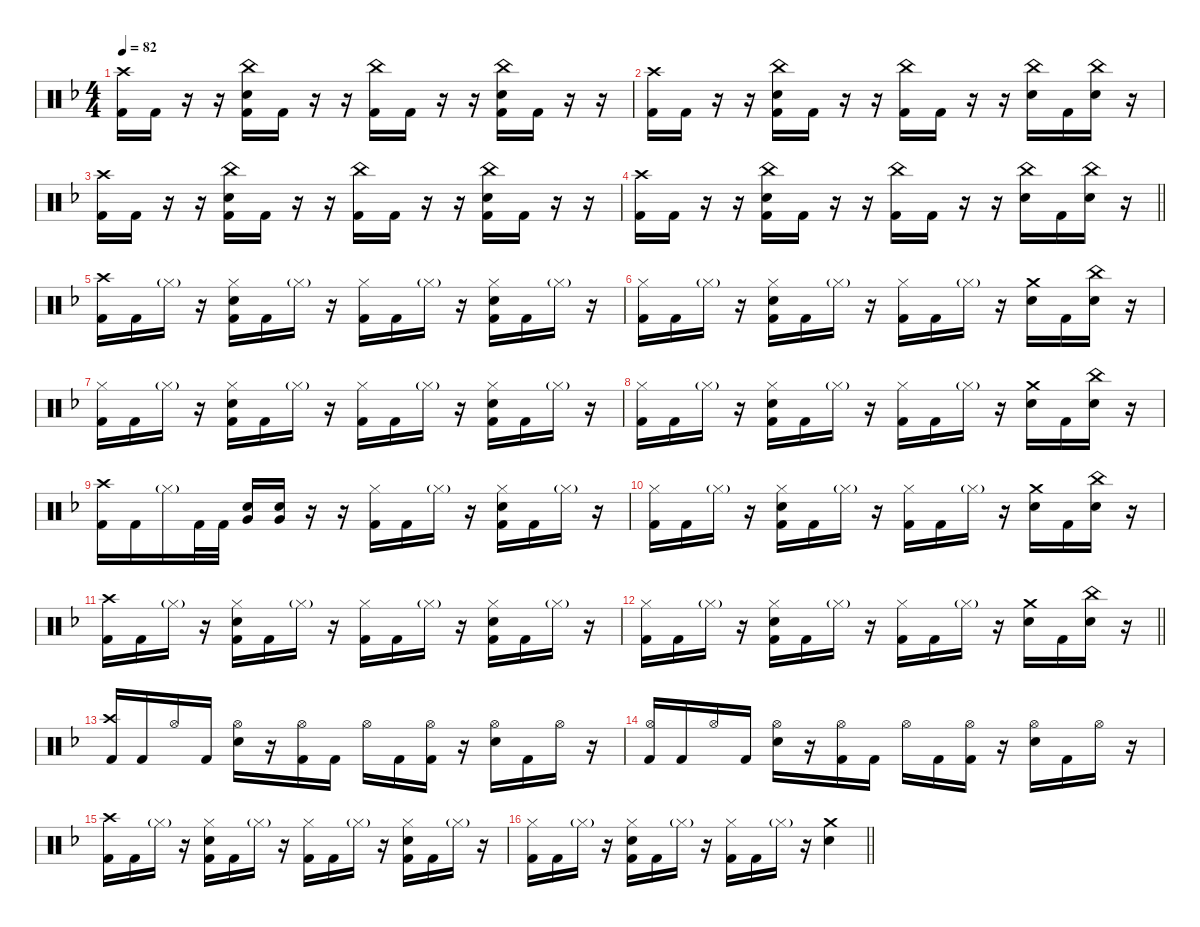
\defaultSystemsLayout 4
\hideDynamics
\bracketExtendMode nobrackets
\singleTrackTrackNamePolicy hidden
\multiTrackTrackNamePolicy hidden
\firstSystemTrackNameMode fullname
\firstSystemTrackNameOrientation horizontal
\otherSystemsTrackNameOrientation horizontal
\track ("Drums" "drm.") {defaultSystemsLayout 4 instrument percussion}
\staff {score}
\articulation defaults
\ts (4 4)
\tempo 82
\clef neutral
\ks dminor
("Crash high (hit)"{acc forcenatural} "Kick (hit) 2"{acc forcenatural}).16{dy f beam Down} "Kick (hit) 2"{acc forcenatural}.16{beam Down} r.16{beam Down} r.16{beam Down} ("China (hit)"{acc forcenatural} "Snare (hit) 2"{acc forcenatural} "Kick (hit) 2"{acc forcenatural}).16{dy mf beam Down} "Kick (hit) 2"{acc forcenatural}.16{dy f beam Down} r.16{beam Down} r.16{beam Down} ("China (hit)"{acc forcenatural} "Kick (hit) 2"{acc forcenatural}).16{dy mf beam Down} "Kick (hit) 2"{acc forcenatural}.16{dy f beam Down} r.16{beam Down} r.16{beam Down} ("China (hit)"{acc forcenatural} "Snare (hit) 2"{acc forcenatural} "Kick (hit) 2"{acc forcenatural}).16{dy mf beam Down} "Kick (hit) 2"{acc forcenatural}.16{dy f beam Down} r.16{beam Down} r.16{beam Down} |
("Crash high (hit)"{acc forcenatural} "Kick (hit) 2"{acc forcenatural}).16{beam Down} "Kick (hit) 2"{acc forcenatural}.16{beam Down} r.16{beam Down} r.16{beam Down} ("China (hit)"{acc forcenatural} "Snare (hit) 2"{acc forcenatural} "Kick (hit) 2"{acc forcenatural}).16{dy mf beam Down} "Kick (hit) 2"{acc forcenatural}.16{dy f beam Down} r.16{beam Down} r.16{beam Down} ("China (hit)"{acc forcenatural} "Kick (hit) 2"{acc forcenatural}).16{dy mf beam Down} "Kick (hit) 2"{acc forcenatural}.16{dy f beam Down} r.16{beam Down} r.16{beam Down} ("China (hit)"{acc forcenatural} "Snare (hit) 2"{acc forcenatural}).16{dy mf beam Down} "Kick (hit) 2"{acc forcenatural}.16{dy f beam Down} ("China (hit)"{acc forcenatural} "Snare (hit) 2"{acc forcenatural}).16{dy mf beam Down} r.16{beam Down} |
("Crash high (hit)"{acc forcenatural} "Kick (hit) 2"{acc forcenatural}).16{dy f beam Down} "Kick (hit) 2"{acc forcenatural}.16{beam Down} r.16{beam Down} r.16{beam Down} ("China (hit)"{acc forcenatural} "Snare (hit) 2"{acc forcenatural} "Kick (hit) 2"{acc forcenatural}).16{dy mf beam Down} "Kick (hit) 2"{acc forcenatural}.16{dy f beam Down} r.16{beam Down} r.16{beam Down} ("China (hit)"{acc forcenatural} "Kick (hit) 2"{acc forcenatural}).16{dy mf beam Down} "Kick (hit) 2"{acc forcenatural}.16{dy f beam Down} r.16{beam Down} r.16{beam Down} ("China (hit)"{acc forcenatural} "Snare (hit) 2"{acc forcenatural} "Kick (hit) 2"{acc forcenatural}).16{dy mf beam Down} "Kick (hit) 2"{acc forcenatural}.16{dy f beam Down} r.16{beam Down} r.16{beam Down} |
\barLineRight lightlight
("Crash high (hit)"{acc forcenatural} "Kick (hit) 2"{acc forcenatural}).16{beam Down} "Kick (hit) 2"{acc forcenatural}.16{beam Down} r.16{beam Down} r.16{beam Down} ("China (hit)"{acc forcenatural} "Snare (hit) 2"{acc forcenatural} "Kick (hit) 2"{acc forcenatural}).16{dy mf beam Down} "Kick (hit) 2"{acc forcenatural}.16{dy f beam Down} r.16{beam Down} r.16{beam Down} ("China (hit)"{acc forcenatural} "Kick (hit) 2"{acc forcenatural}).16{dy mf beam Down} "Kick (hit) 2"{acc forcenatural}.16{dy f beam Down} r.16{beam Down} r.16{beam Down} ("China (hit)"{acc forcenatural} "Snare (hit) 2"{acc forcenatural}).16{dy mf beam Down} "Kick (hit) 2"{acc forcenatural}.16{dy f beam Down} ("China (hit)"{acc forcenatural} "Snare (hit) 2"{acc forcenatural}).16{dy mf beam Down} r.16{beam Down} |
("Crash high (hit)"{acc forcenatural} "Kick (hit) 2"{acc forcenatural}).16{dy f beam Down} "Kick (hit) 2"{acc forcenatural}.16{beam Down} "Hi-Hat (closed)"{g acc forcenatural}.16{dy mf beam Down} r.16{beam Down} ("Hi-Hat (closed)"{acc forcenatural} "Snare (hit) 2"{acc forcenatural} "Kick (hit) 2"{acc forcenatural}).16{dy f beam Down} "Kick (hit) 2"{acc forcenatural}.16{beam Down} "Hi-Hat (closed)"{g acc forcenatural}.16{dy mf beam Down} r.16{beam Down} ("Hi-Hat (closed)"{acc forcenatural} "Kick (hit) 2"{acc forcenatural}).16{dy f beam Down} "Kick (hit) 2"{acc forcenatural}.16{beam Down} "Hi-Hat (closed)"{g acc forcenatural}.16{dy mf beam Down} r.16{beam Down} ("Hi-Hat (closed)"{acc forcenatural} "Snare (hit) 2"{acc forcenatural} "Kick (hit) 2"{acc forcenatural}).16{dy f beam Down} "Kick (hit) 2"{acc forcenatural}.16{beam Down} "Hi-Hat (closed)"{g acc forcenatural}.16{dy mf beam Down} r.16{beam Down} |
("Hi-Hat (closed)"{acc forcenatural} "Kick (hit) 2"{acc forcenatural}).16{dy f beam Down} "Kick (hit) 2"{acc forcenatural}.16{beam Down} "Hi-Hat (closed)"{g acc forcenatural}.16{dy mf beam Down} r.16{beam Down} ("Hi-Hat (closed)"{acc forcenatural} "Snare (hit) 2"{acc forcenatural} "Kick (hit) 2"{acc forcenatural}).16{dy f beam Down} "Kick (hit) 2"{acc forcenatural}.16{beam Down} "Hi-Hat (closed)"{g acc forcenatural}.16{dy mf beam Down} r.16{beam Down} ("Hi-Hat (closed)"{acc forcenatural} "Kick (hit) 2"{acc forcenatural}).16{dy f beam Down} "Kick (hit) 2"{acc forcenatural}.16{beam Down} "Hi-Hat (closed)"{g acc forcenatural}.16{dy mf beam Down} r.16{beam Down} ("Crash medium (hit)"{acc forcenatural} "Snare (hit) 2"{acc forcenatural}).16{dy f beam Down} "Kick (hit) 2"{acc forcenatural}.16{beam Down} ("China (hit)"{acc forcenatural} "Snare (hit) 2"{acc forcenatural}).16{beam Down} r.16{beam Down} |
("Hi-Hat (closed)"{acc forcenatural} "Kick (hit) 2"{acc forcenatural}).16{beam Down} "Kick (hit) 2"{acc forcenatural}.16{beam Down} "Hi-Hat (closed)"{g acc forcenatural}.16{dy mf beam Down} r.16{beam Down} ("Hi-Hat (closed)"{acc forcenatural} "Snare (hit) 2"{acc forcenatural} "Kick (hit) 2"{acc forcenatural}).16{dy f beam Down} "Kick (hit) 2"{acc forcenatural}.16{beam Down} "Hi-Hat (closed)"{g acc forcenatural}.16{dy mf beam Down} r.16{beam Down} ("Hi-Hat (closed)"{acc forcenatural} "Kick (hit) 2"{acc forcenatural}).16{dy f beam Down} "Kick (hit) 2"{acc forcenatural}.16{beam Down} "Hi-Hat (closed)"{g acc forcenatural}.16{dy mf beam Down} r.16{beam Down} ("Hi-Hat (closed)"{acc forcenatural} "Snare (hit) 2"{acc forcenatural} "Kick (hit) 2"{acc forcenatural}).16{dy f beam Down} "Kick (hit) 2"{acc forcenatural}.16{beam Down} "Hi-Hat (closed)"{g acc forcenatural}.16{dy mf beam Down} r.16{beam Down} |
("Hi-Hat (closed)"{acc forcenatural} "Kick (hit) 2"{acc forcenatural}).16{dy f beam Down} "Kick (hit) 2"{acc forcenatural}.16{beam Down} "Hi-Hat (closed)"{g acc forcenatural}.16{dy mf beam Down} r.16{beam Down} ("Hi-Hat (closed)"{acc forcenatural} "Snare (hit) 2"{acc forcenatural} "Kick (hit) 2"{acc forcenatural}).16{dy f beam Down} "Kick (hit) 2"{acc forcenatural}.16{beam Down} "Hi-Hat (closed)"{g acc forcenatural}.16{dy mf beam Down} r.16{beam Down} ("Hi-Hat (closed)"{acc forcenatural} "Kick (hit) 2"{acc forcenatural}).16{dy f beam Down} "Kick (hit) 2"{acc forcenatural}.16{beam Down} "Hi-Hat (closed)"{g acc forcenatural}.16{dy mf beam Down} r.16{beam Down} ("Crash medium (hit)"{acc forcenatural} "Snare (hit) 2"{acc forcenatural}).16{dy f beam Down} "Kick (hit) 2"{acc forcenatural}.16{beam Down} ("China (hit)"{acc forcenatural} "Snare (hit) 2"{acc forcenatural}).16{beam Down} r.16{beam Down} |
("Crash high (hit)"{acc forcenatural} "Kick (hit) 2"{acc forcenatural}).16{beam Down} "Kick (hit) 2"{acc forcenatural}.16{beam Down} "Hi-Hat (closed)"{g acc forcenatural}.16{dy mf beam Down} "Kick (hit) 2"{acc forcenatural}.32{dy f beam Down} "Kick (hit) 2"{acc forcenatural}.32{beam Down} ("Snare (hit) 2"{acc forcenatural} "Very Low Tom (hit)"{acc forcenatural}).16{beam Up} ("Snare (hit) 2"{acc forcenatural} "Very Low Tom (hit)"{acc forcenatural}).16{beam Up} r.16{beam Up} r.16{beam Up} ("Hi-Hat (closed)"{acc forcenatural} "Kick (hit) 2"{acc forcenatural}).16{beam Down} "Kick (hit) 2"{acc forcenatural}.16{beam Down} "Hi-Hat (closed)"{g acc forcenatural}.16{dy mf beam Down} r.16{beam Down} ("Hi-Hat (closed)"{acc forcenatural} "Snare (hit) 2"{acc forcenatural} "Kick (hit) 2"{acc forcenatural}).16{dy f beam Down} "Kick (hit) 2"{acc forcenatural}.16{beam Down} "Hi-Hat (closed)"{g acc forcenatural}.16{dy mf beam Down} r.16{beam Down} |
("Hi-Hat (closed)"{acc forcenatural} "Kick (hit) 2"{acc forcenatural}).16{dy f beam Down} "Kick (hit) 2"{acc forcenatural}.16{beam Down} "Hi-Hat (closed)"{g acc forcenatural}.16{dy mf beam Down} r.16{beam Down} ("Hi-Hat (closed)"{acc forcenatural} "Snare (hit) 2"{acc forcenatural} "Kick (hit) 2"{acc forcenatural}).16{dy f beam Down} "Kick (hit) 2"{acc forcenatural}.16{beam Down} "Hi-Hat (closed)"{g acc forcenatural}.16{dy mf beam Down} r.16{beam Down} ("Hi-Hat (closed)"{acc forcenatural} "Kick (hit) 2"{acc forcenatural}).16{dy f beam Down} "Kick (hit) 2"{acc forcenatural}.16{beam Down} "Hi-Hat (closed)"{g acc forcenatural}.16{dy mf beam Down} r.16{beam Down} ("Crash medium (hit)"{acc forcenatural} "Snare (hit) 2"{acc forcenatural}).16{dy f beam Down} "Kick (hit) 2"{acc forcenatural}.16{beam Down} ("China (hit)"{acc forcenatural} "Snare (hit) 2"{acc forcenatural}).16{beam Down} r.16{beam Down} |
("Crash high (hit)"{acc forcenatural} "Kick (hit) 2"{acc forcenatural}).16{beam Down} "Kick (hit) 2"{acc forcenatural}.16{beam Down} "Hi-Hat (closed)"{g acc forcenatural}.16{dy mf beam Down} r.16{beam Down} ("Hi-Hat (closed)"{acc forcenatural} "Snare (hit) 2"{acc forcenatural} "Kick (hit) 2"{acc forcenatural}).16{dy f beam Down} "Kick (hit) 2"{acc forcenatural}.16{beam Down} "Hi-Hat (closed)"{g acc forcenatural}.16{dy mf beam Down} r.16{beam Down} ("Hi-Hat (closed)"{acc forcenatural} "Kick (hit) 2"{acc forcenatural}).16{dy f beam Down} "Kick (hit) 2"{acc forcenatural}.16{beam Down} "Hi-Hat (closed)"{g acc forcenatural}.16{dy mf beam Down} r.16{beam Down} ("Hi-Hat (closed)"{acc forcenatural} "Snare (hit) 2"{acc forcenatural} "Kick (hit) 2"{acc forcenatural}).16{dy f beam Down} "Kick (hit) 2"{acc forcenatural}.16{beam Down} "Hi-Hat (closed)"{g acc forcenatural}.16{dy mf beam Down} r.16{beam Down} |
\barLineRight lightlight
("Hi-Hat (closed)"{acc forcenatural} "Kick (hit) 2"{acc forcenatural}).16{dy f beam Down} "Kick (hit) 2"{acc forcenatural}.16{beam Down} "Hi-Hat (closed)"{g acc forcenatural}.16{dy mf beam Down} r.16{beam Down} ("Hi-Hat (closed)"{acc forcenatural} "Snare (hit) 2"{acc forcenatural} "Kick (hit) 2"{acc forcenatural}).16{dy f beam Down} "Kick (hit) 2"{acc forcenatural}.16{beam Down} "Hi-Hat (closed)"{g acc forcenatural}.16{dy mf beam Down} r.16{beam Down} ("Hi-Hat (closed)"{acc forcenatural} "Kick (hit) 2"{acc forcenatural}).16{dy f beam Down} "Kick (hit) 2"{acc forcenatural}.16{beam Down} "Hi-Hat (closed)"{g acc forcenatural}.16{dy mf beam Down} r.16{beam Down} ("Crash medium (hit)"{acc forcenatural} "Snare (hit) 2"{acc forcenatural}).16{dy f beam Down} "Kick (hit) 2"{acc forcenatural}.16{beam Down} ("China (hit)"{acc forcenatural} "Snare (hit) 2"{acc forcenatural}).16{beam Down} r.16{beam Down} |
("Crash high (hit)"{acc forcenatural} "Kick (hit) 2"{acc forcenatural}).16{beam Up} "Kick (hit) 2"{acc forcenatural}.16{beam Up} "Hi-Hat (open)"{acc forcenatural}.16{dy mp beam Up} "Kick (hit) 2"{acc forcenatural}.16{dy f beam Up} ("Hi-Hat (open)"{acc forcenatural} "Snare (hit) 2"{acc forcenatural}).16{dy mp beam Down} r.16{beam Down} ("Hi-Hat (open)"{acc forcenatural} "Kick (hit) 2"{acc forcenatural}).16{beam Down} "Kick (hit) 2"{acc forcenatural}.16{dy f beam Down} "Hi-Hat (open)"{acc forcenatural}.16{dy mp beam Down} "Kick (hit) 2"{acc forcenatural}.16{dy f beam Down} ("Hi-Hat (open)"{acc forcenatural} "Kick (hit) 2"{acc forcenatural}).16{dy mp beam Down} r.16{beam Down} ("Hi-Hat (open)"{acc forcenatural} "Snare (hit) 2"{acc forcenatural}).16{beam Down} "Kick (hit) 2"{acc forcenatural}.16{dy f beam Down} "Hi-Hat (open)"{acc forcenatural}.16{dy mp beam Down} r.16{beam Down} |
("Hi-Hat (open)"{acc forcenatural} "Kick (hit) 2"{acc forcenatural}).16{beam Up} "Kick (hit) 2"{acc forcenatural}.16{dy f beam Up} "Hi-Hat (open)"{acc forcenatural}.16{dy mp beam Up} "Kick (hit) 2"{acc forcenatural}.16{dy f beam Up} ("Hi-Hat (open)"{acc forcenatural} "Snare (hit) 2"{acc forcenatural}).16{dy mp beam Down} r.16{beam Down} ("Hi-Hat (open)"{acc forcenatural} "Kick (hit) 2"{acc forcenatural}).16{beam Down} "Kick (hit) 2"{acc forcenatural}.16{dy f beam Down} "Hi-Hat (open)"{acc forcenatural}.16{dy mp beam Down} "Kick (hit) 2"{acc forcenatural}.16{dy f beam Down} ("Hi-Hat (open)"{acc forcenatural} "Kick (hit) 2"{acc forcenatural}).16{dy mp beam Down} r.16{beam Down} ("Hi-Hat (open)"{acc forcenatural} "Snare (hit) 2"{acc forcenatural}).16{beam Down} "Kick (hit) 2"{acc forcenatural}.16{dy f beam Down} "Hi-Hat (open)"{acc forcenatural}.16{dy mp beam Down} r.16{beam Down} |
("Crash high (hit)"{acc forcenatural} "Kick (hit) 2"{acc forcenatural}).16{dy f beam Down} "Kick (hit) 2"{acc forcenatural}.16{beam Down} "Hi-Hat (closed)"{g acc forcenatural}.16{dy mf beam Down} r.16{beam Down} ("Hi-Hat (closed)"{acc forcenatural} "Snare (hit) 2"{acc forcenatural} "Kick (hit) 2"{acc forcenatural}).16{dy f beam Down} "Kick (hit) 2"{acc forcenatural}.16{beam Down} "Hi-Hat (closed)"{g acc forcenatural}.16{dy mf beam Down} r.16{beam Down} ("Hi-Hat (closed)"{acc forcenatural} "Kick (hit) 2"{acc forcenatural}).16{dy f beam Down} "Kick (hit) 2"{acc forcenatural}.16{beam Down} "Hi-Hat (closed)"{g acc forcenatural}.16{dy mf beam Down} r.16{beam Down} ("Hi-Hat (closed)"{acc forcenatural} "Snare (hit) 2"{acc forcenatural} "Kick (hit) 2"{acc forcenatural}).16{dy f beam Down} "Kick (hit) 2"{acc forcenatural}.16{beam Down} "Hi-Hat (closed)"{g acc forcenatural}.16{dy mf beam Down} r.16{beam Down} |
\barLineRight lightlight
("Hi-Hat (closed)"{acc forcenatural} "Kick (hit) 2"{acc forcenatural}).16{dy f beam Down} "Kick (hit) 2"{acc forcenatural}.16{beam Down} "Hi-Hat (closed)"{g acc forcenatural}.16{dy mf beam Down} r.16{beam Down} ("Hi-Hat (closed)"{acc forcenatural} "Snare (hit) 2"{acc forcenatural} "Kick (hit) 2"{acc forcenatural}).16{dy f beam Down} "Kick (hit) 2"{acc forcenatural}.16{beam Down} "Hi-Hat (closed)"{g acc forcenatural}.16{dy mf beam Down} r.16{beam Down} ("Hi-Hat (closed)"{acc forcenatural} "Kick (hit) 2"{acc forcenatural}).16{dy f beam Down} "Kick (hit) 2"{acc forcenatural}.16{beam Down} "Hi-Hat (closed)"{g acc forcenatural}.16{dy mf beam Down} r.16{beam Down} ("Crash medium (hit)"{acc forcenatural} "Snare (hit) 2"{acc forcenatural}).4{dy f beam Down}
